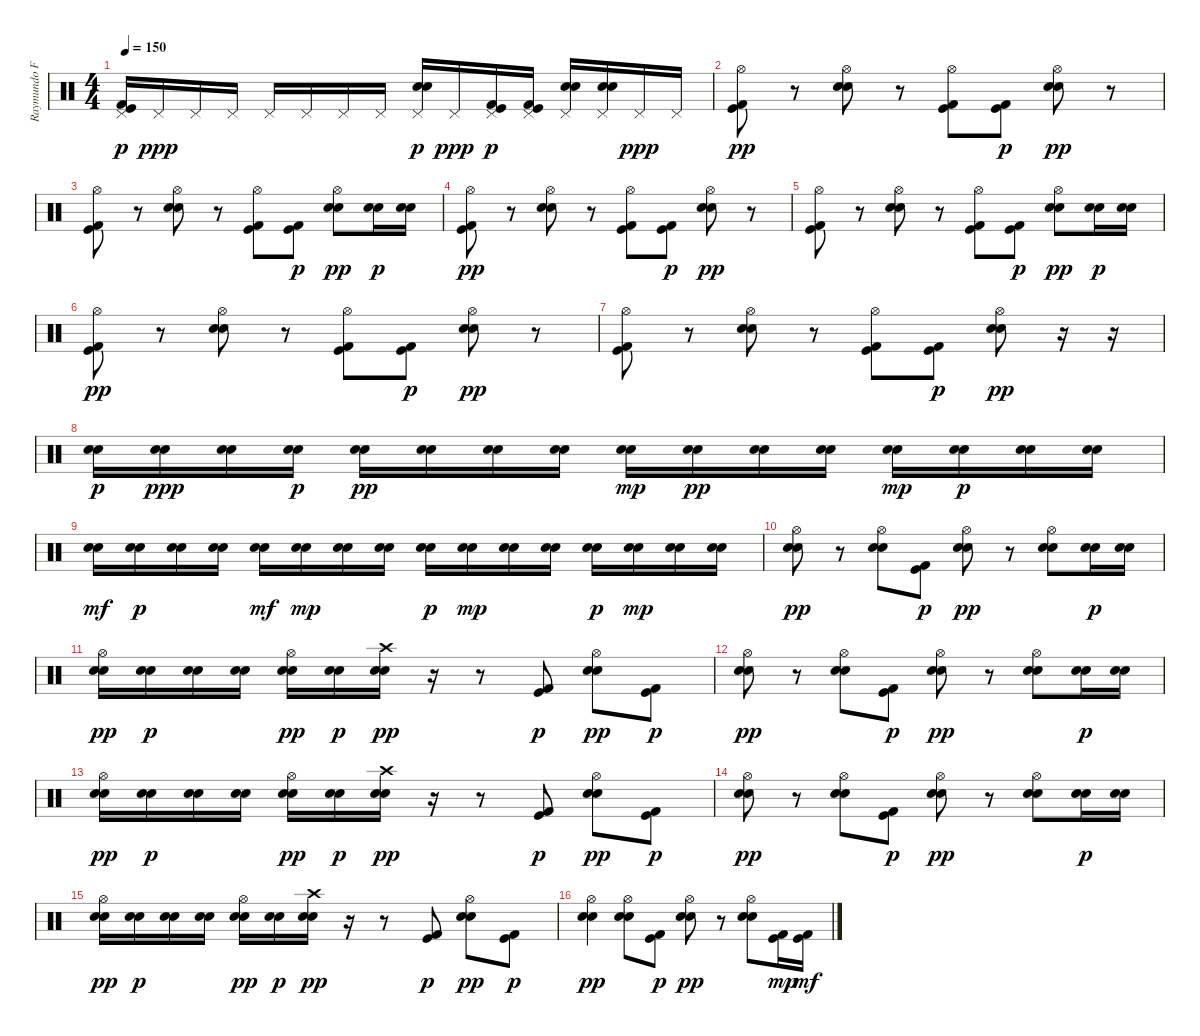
\track ("Raymundo Fajardo (Bateria)" "Raymundo F") {instrument percussion}
\staff {score}
\articulation defaults
\ts (4 4)
\tempo 150
\clef neutral
\ks c
("Pedal Hi-Hat (hit)" "Kick (hit) 2" "Kick (hit)").16{dy p} "Pedal Hi-Hat (hit)".16{dy ppp} "Pedal Hi-Hat (hit)".16 "Pedal Hi-Hat (hit)".16 "Pedal Hi-Hat (hit)".16 "Pedal Hi-Hat (hit)".16 "Pedal Hi-Hat (hit)".16 "Pedal Hi-Hat (hit)".16 ("Pedal Hi-Hat (hit)" "Electric Snare (hit)" "Snare (hit) 2").16{dy p} "Pedal Hi-Hat (hit)".16{dy ppp} ("Pedal Hi-Hat (hit)" "Kick (hit) 2" "Kick (hit)").16{dy p} ("Pedal Hi-Hat (hit)" "Kick (hit) 2" "Kick (hit)").16 ("Pedal Hi-Hat (hit)" "Electric Snare (hit)" "Snare (hit) 2").16 ("Pedal Hi-Hat (hit)" "Electric Snare (hit)" "Snare (hit) 2").16 "Pedal Hi-Hat (hit)".16{dy ppp} "Pedal Hi-Hat (hit)".16 |
("Kick (hit) 2" "Kick (hit)" "Hi-Hat (open)").8{dy pp} r.8 ("Electric Snare (hit)" "Snare (hit) 2" "Hi-Hat (open)").8 r.8 ("Kick (hit) 2" "Kick (hit)" "Hi-Hat (open)").8 ("Kick (hit) 2" "Kick (hit)").8{dy p} ("Electric Snare (hit)" "Snare (hit) 2" "Hi-Hat (open)").8{dy pp} r.8 |
("Kick (hit) 2" "Kick (hit)" "Hi-Hat (open)").8 r.8 ("Electric Snare (hit)" "Snare (hit) 2" "Hi-Hat (open)").8 r.8 ("Kick (hit) 2" "Kick (hit)" "Hi-Hat (open)").8 ("Kick (hit) 2" "Kick (hit)").8{dy p} ("Electric Snare (hit)" "Snare (hit) 2" "Hi-Hat (open)").8{dy pp} ("Electric Snare (hit)" "Snare (hit) 2").16{dy p} ("Electric Snare (hit)" "Snare (hit) 2").16 |
("Kick (hit) 2" "Kick (hit)" "Hi-Hat (open)").8{dy pp} r.8 ("Electric Snare (hit)" "Snare (hit) 2" "Hi-Hat (open)").8 r.8 ("Kick (hit) 2" "Kick (hit)" "Hi-Hat (open)").8 ("Kick (hit) 2" "Kick (hit)").8{dy p} ("Electric Snare (hit)" "Snare (hit) 2" "Hi-Hat (open)").8{dy pp} r.8 |
("Kick (hit) 2" "Kick (hit)" "Hi-Hat (open)").8 r.8 ("Electric Snare (hit)" "Snare (hit) 2" "Hi-Hat (open)").8 r.8 ("Kick (hit) 2" "Kick (hit)" "Hi-Hat (open)").8 ("Kick (hit) 2" "Kick (hit)").8{dy p} ("Electric Snare (hit)" "Snare (hit) 2" "Hi-Hat (open)").8{dy pp} ("Electric Snare (hit)" "Snare (hit) 2").16{dy p} ("Electric Snare (hit)" "Snare (hit) 2").16 |
("Kick (hit) 2" "Kick (hit)" "Hi-Hat (open)").8{dy pp} r.8 ("Electric Snare (hit)" "Snare (hit) 2" "Hi-Hat (open)").8 r.8 ("Kick (hit) 2" "Kick (hit)" "Hi-Hat (open)").8 ("Kick (hit) 2" "Kick (hit)").8{dy p} ("Electric Snare (hit)" "Snare (hit) 2" "Hi-Hat (open)").8{dy pp} r.8 |
("Kick (hit) 2" "Kick (hit)" "Hi-Hat (open)").8 r.8 ("Electric Snare (hit)" "Snare (hit) 2" "Hi-Hat (open)").8 r.8 ("Kick (hit) 2" "Kick (hit)" "Hi-Hat (open)").8 ("Kick (hit) 2" "Kick (hit)").8{dy p} ("Electric Snare (hit)" "Snare (hit) 2" "Hi-Hat (open)").8{dy pp} r.16 r.16 |
("Snare (hit) 2" "Electric Snare (hit)").16{dy p} ("Snare (hit) 2" "Electric Snare (hit)").16{dy ppp} ("Snare (hit) 2" "Electric Snare (hit)").16 ("Snare (hit) 2" "Electric Snare (hit)").16{dy p} ("Snare (hit) 2" "Electric Snare (hit)").16{dy pp} ("Snare (hit) 2" "Electric Snare (hit)").16 ("Snare (hit) 2" "Electric Snare (hit)").16 ("Snare (hit) 2" "Electric Snare (hit)").16 ("Snare (hit) 2" "Electric Snare (hit)").16{dy mp} ("Snare (hit) 2" "Electric Snare (hit)").16{dy pp} ("Snare (hit) 2" "Electric Snare (hit)").16 ("Snare (hit) 2" "Electric Snare (hit)").16 ("Snare (hit) 2" "Electric Snare (hit)").16{dy mp} ("Snare (hit) 2" "Electric Snare (hit)").16{dy p} ("Snare (hit) 2" "Electric Snare (hit)").16 ("Snare (hit) 2" "Electric Snare (hit)").16 |
("Snare (hit) 2" "Electric Snare (hit)").16{dy mf} ("Snare (hit) 2" "Electric Snare (hit)").16{dy p} ("Snare (hit) 2" "Electric Snare (hit)").16 ("Snare (hit) 2" "Electric Snare (hit)").16 ("Snare (hit) 2" "Electric Snare (hit)").16{dy mf} ("Snare (hit) 2" "Electric Snare (hit)").16{dy mp} ("Snare (hit) 2" "Electric Snare (hit)").16 ("Snare (hit) 2" "Electric Snare (hit)").16 ("Snare (hit) 2" "Electric Snare (hit)").16{dy p} ("Snare (hit) 2" "Electric Snare (hit)").16{dy mp} ("Snare (hit) 2" "Electric Snare (hit)").16 ("Snare (hit) 2" "Electric Snare (hit)").16 ("Snare (hit) 2" "Electric Snare (hit)").16{dy p} ("Snare (hit) 2" "Electric Snare (hit)").16{dy mp} ("Snare (hit) 2" "Electric Snare (hit)").16 ("Snare (hit) 2" "Electric Snare (hit)").16 |
("Electric Snare (hit)" "Snare (hit) 2" "Hi-Hat (open)").8{dy pp} r.8 ("Electric Snare (hit)" "Snare (hit) 2" "Hi-Hat (open)").8 ("Kick (hit) 2" "Kick (hit)").8{dy p} ("Electric Snare (hit)" "Snare (hit) 2" "Hi-Hat (open)").8{dy pp} r.8 ("Electric Snare (hit)" "Snare (hit) 2" "Hi-Hat (open)").8 ("Electric Snare (hit)" "Snare (hit) 2").16{dy p} ("Electric Snare (hit)" "Snare (hit) 2").16 |
("Electric Snare (hit)" "Snare (hit) 2" "Hi-Hat (open)").16{dy pp} ("Electric Snare (hit)" "Snare (hit) 2").16{dy p} ("Electric Snare (hit)" "Snare (hit) 2").16 ("Electric Snare (hit)" "Snare (hit) 2").16 ("Electric Snare (hit)" "Snare (hit) 2" "Hi-Hat (open)").16{dy pp} ("Electric Snare (hit)" "Snare (hit) 2").16{dy p} ("Electric Snare (hit)" "Snare (hit) 2" "Crash high (hit)").16{dy pp} r.16 r.8 ("Kick (hit) 2" "Kick (hit)").8{dy p} ("Electric Snare (hit)" "Snare (hit) 2" "Hi-Hat (open)").8{dy pp} ("Kick (hit) 2" "Kick (hit)").8{dy p} |
("Electric Snare (hit)" "Snare (hit) 2" "Hi-Hat (open)").8{dy pp} r.8 ("Electric Snare (hit)" "Snare (hit) 2" "Hi-Hat (open)").8 ("Kick (hit) 2" "Kick (hit)").8{dy p} ("Electric Snare (hit)" "Snare (hit) 2" "Hi-Hat (open)").8{dy pp} r.8 ("Electric Snare (hit)" "Snare (hit) 2" "Hi-Hat (open)").8 ("Electric Snare (hit)" "Snare (hit) 2").16{dy p} ("Electric Snare (hit)" "Snare (hit) 2").16 |
("Electric Snare (hit)" "Snare (hit) 2" "Hi-Hat (open)").16{dy pp} ("Electric Snare (hit)" "Snare (hit) 2").16{dy p} ("Electric Snare (hit)" "Snare (hit) 2").16 ("Electric Snare (hit)" "Snare (hit) 2").16 ("Electric Snare (hit)" "Snare (hit) 2" "Hi-Hat (open)").16{dy pp} ("Electric Snare (hit)" "Snare (hit) 2").16{dy p} ("Electric Snare (hit)" "Snare (hit) 2" "Crash high (hit)").16{dy pp} r.16 r.8 ("Kick (hit) 2" "Kick (hit)").8{dy p} ("Electric Snare (hit)" "Snare (hit) 2" "Hi-Hat (open)").8{dy pp} ("Kick (hit) 2" "Kick (hit)").8{dy p} |
("Electric Snare (hit)" "Snare (hit) 2" "Hi-Hat (open)").8{dy pp} r.8 ("Electric Snare (hit)" "Snare (hit) 2" "Hi-Hat (open)").8 ("Kick (hit) 2" "Kick (hit)").8{dy p} ("Electric Snare (hit)" "Snare (hit) 2" "Hi-Hat (open)").8{dy pp} r.8 ("Electric Snare (hit)" "Snare (hit) 2" "Hi-Hat (open)").8 ("Electric Snare (hit)" "Snare (hit) 2").16{dy p} ("Electric Snare (hit)" "Snare (hit) 2").16 |
("Electric Snare (hit)" "Snare (hit) 2" "Hi-Hat (open)").16{dy pp} ("Electric Snare (hit)" "Snare (hit) 2").16{dy p} ("Electric Snare (hit)" "Snare (hit) 2").16 ("Electric Snare (hit)" "Snare (hit) 2").16 ("Electric Snare (hit)" "Snare (hit) 2" "Hi-Hat (open)").16{dy pp} ("Electric Snare (hit)" "Snare (hit) 2").16{dy p} ("Electric Snare (hit)" "Snare (hit) 2" "Crash high (hit)").16{dy pp} r.16 r.8 ("Kick (hit) 2" "Kick (hit)").8{dy p} ("Electric Snare (hit)" "Snare (hit) 2" "Hi-Hat (open)").8{dy pp} ("Kick (hit) 2" "Kick (hit)").8{dy p} |
("Electric Snare (hit)" "Snare (hit) 2" "Hi-Hat (open)").4{dy pp} ("Electric Snare (hit)" "Snare (hit) 2" "Hi-Hat (open)").8 ("Kick (hit) 2" "Kick (hit)").8{dy p} ("Electric Snare (hit)" "Snare (hit) 2" "Hi-Hat (open)").8{dy pp} r.8 ("Electric Snare (hit)" "Snare (hit) 2" "Hi-Hat (open)").8 ("Kick (hit)" "Kick (hit) 2").16{dy mp} ("Kick (hit)" "Kick (hit) 2").16{dy mf}
